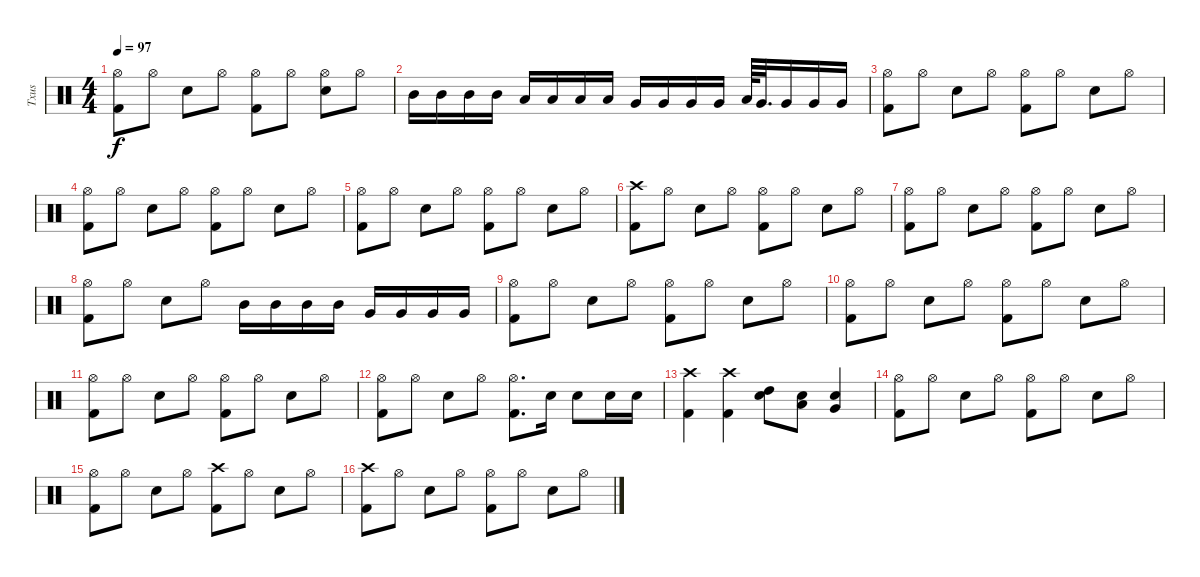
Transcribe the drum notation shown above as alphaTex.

\track ("Txus" "Txus") {instrument percussion}
\staff {score}
\articulation defaults
\ts (4 4)
\tempo 97
\clef neutral
\ks c
("Hi-Hat (open)" "Kick (hit) 2").8{dy f} "Hi-Hat (open)".8 "Snare (hit) 2".8 "Hi-Hat (open)".8 ("Hi-Hat (open)" "Kick (hit) 2").8 "Hi-Hat (open)".8 ("Hi-Hat (open)" "Snare (hit) 2").8 "Hi-Hat (open)".8 |
"Mid Tom (hit)".16 "Mid Tom (hit)".16 "Mid Tom (hit)".16 "Mid Tom (hit)".16 "Low Tom (hit)".16 "Low Tom (hit)".16 "Low Tom (hit)".16 "Low Tom (hit)".16 "Very Low Tom (hit)".16 "Very Low Tom (hit)".16 "Very Low Tom (hit)".16 "Very Low Tom (hit)".16 "Low Tom (hit)".64 "Very Low Tom (hit)".32{d} "Very Low Tom (hit)".16 "Very Low Tom (hit)".16 "Very Low Tom (hit)".16 |
("Hi-Hat (open)" "Kick (hit) 2").8 "Hi-Hat (open)".8 "Snare (hit) 2".8 "Hi-Hat (open)".8 ("Hi-Hat (open)" "Kick (hit) 2").8 "Hi-Hat (open)".8 "Snare (hit) 2".8 "Hi-Hat (open)".8 |
("Hi-Hat (open)" "Kick (hit) 2").8 "Hi-Hat (open)".8 "Snare (hit) 2".8 "Hi-Hat (open)".8 ("Hi-Hat (open)" "Kick (hit) 2").8 "Hi-Hat (open)".8 "Snare (hit) 2".8 "Hi-Hat (open)".8 |
("Hi-Hat (open)" "Kick (hit) 2").8 "Hi-Hat (open)".8 "Snare (hit) 2".8 "Hi-Hat (open)".8 ("Hi-Hat (open)" "Kick (hit) 2").8 "Hi-Hat (open)".8 "Snare (hit) 2".8 "Hi-Hat (open)".8 |
("Crash high (hit)" "Kick (hit) 2").8 "Hi-Hat (open)".8 "Snare (hit) 2".8 "Hi-Hat (open)".8 ("Hi-Hat (open)" "Kick (hit) 2").8 "Hi-Hat (open)".8 "Snare (hit) 2".8 "Hi-Hat (open)".8 |
("Hi-Hat (open)" "Kick (hit) 2").8 "Hi-Hat (open)".8 "Snare (hit) 2".8 "Hi-Hat (open)".8 ("Hi-Hat (open)" "Kick (hit) 2").8 "Hi-Hat (open)".8 "Snare (hit) 2".8 "Hi-Hat (open)".8 |
("Hi-Hat (open)" "Kick (hit) 2").8 "Hi-Hat (open)".8 "Snare (hit) 2".8 "Hi-Hat (open)".8 "Mid Tom (hit)".16 "Mid Tom (hit)".16 "Mid Tom (hit)".16 "Mid Tom (hit)".16 "Very Low Tom (hit)".16 "Very Low Tom (hit)".16 "Very Low Tom (hit)".16 "Very Low Tom (hit)".16 |
("Hi-Hat (open)" "Kick (hit) 2").8 "Hi-Hat (open)".8 "Snare (hit) 2".8 "Hi-Hat (open)".8 ("Hi-Hat (open)" "Kick (hit) 2").8 "Hi-Hat (open)".8 "Snare (hit) 2".8 "Hi-Hat (open)".8 |
("Hi-Hat (open)" "Kick (hit) 2").8 "Hi-Hat (open)".8 "Snare (hit) 2".8 "Hi-Hat (open)".8 ("Hi-Hat (open)" "Kick (hit) 2").8 "Hi-Hat (open)".8 "Snare (hit) 2".8 "Hi-Hat (open)".8 |
("Hi-Hat (open)" "Kick (hit) 2").8 "Hi-Hat (open)".8 "Snare (hit) 2".8 "Hi-Hat (open)".8 ("Hi-Hat (open)" "Kick (hit) 2").8 "Hi-Hat (open)".8 "Snare (hit) 2".8 "Hi-Hat (open)".8 |
("Hi-Hat (open)" "Kick (hit) 2").8 "Hi-Hat (open)".8 "Snare (hit) 2".8 "Hi-Hat (open)".8 ("Hi-Hat (open)" "Kick (hit) 2").8{d} "Snare (hit) 2".16 "Snare (hit) 2".8 "Snare (hit) 2".16 "Snare (hit) 2".16 |
("Crash high (hit)" "Kick (hit) 2").4 ("Crash high (hit)" "Kick (hit) 2").4 ("Snare (hit) 2" "High Tom (hit)").8 ("Snare (hit) 2" "Low Tom (hit)").8 ("Snare (hit) 2" "Very Low Tom (hit)").4 |
("Hi-Hat (open)" "Kick (hit) 2").8 "Hi-Hat (open)".8 "Snare (hit) 2".8 "Hi-Hat (open)".8 ("Hi-Hat (open)" "Kick (hit) 2").8 "Hi-Hat (open)".8 "Snare (hit) 2".8 "Hi-Hat (open)".8 |
("Hi-Hat (open)" "Kick (hit) 2").8 "Hi-Hat (open)".8 "Snare (hit) 2".8 "Hi-Hat (open)".8 ("Crash high (hit)" "Kick (hit) 2").8 "Hi-Hat (open)".8 "Snare (hit) 2".8 "Hi-Hat (open)".8 |
("Crash high (hit)" "Kick (hit) 2").8 "Hi-Hat (open)".8 "Snare (hit) 2".8 "Hi-Hat (open)".8 ("Hi-Hat (open)" "Kick (hit) 2").8 "Hi-Hat (open)".8 "Snare (hit) 2".8 "Hi-Hat (open)".8
